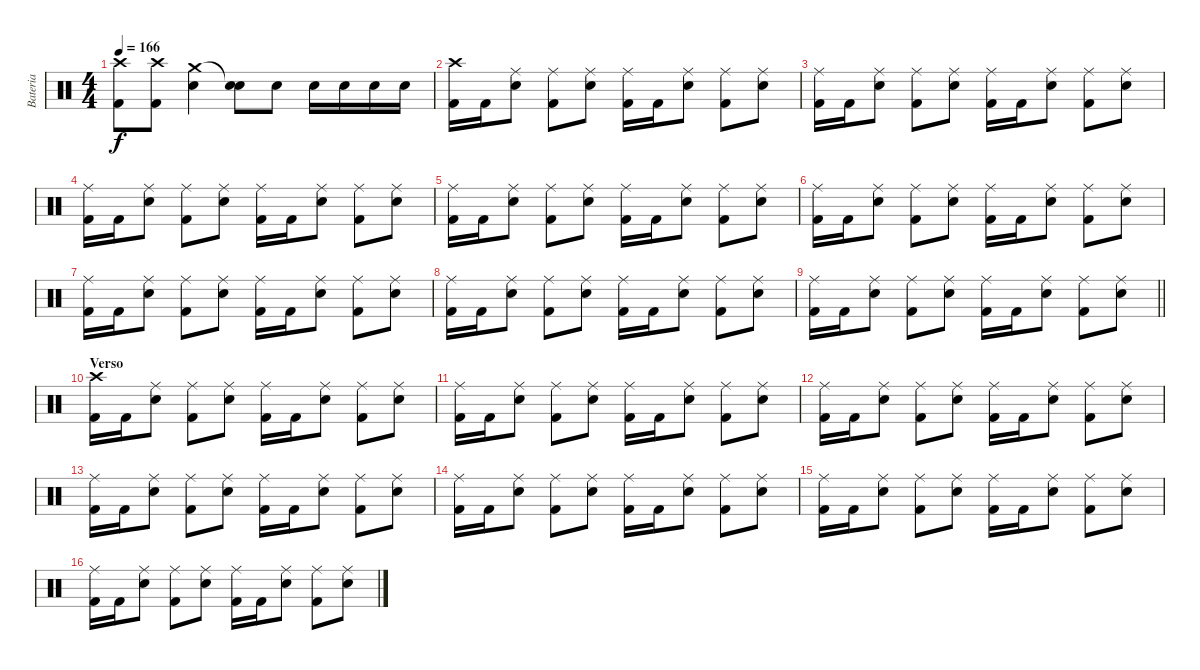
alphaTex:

\track ("Bateria" "Bateria") {instrument percussion}
\staff {score}
\articulation defaults
\ts (4 4)
\tempo 166
\clef neutral
\ks c
("Crash high (hit)" "Kick (hit) 2").8{dy f} ("Crash high (hit)" "Kick (hit) 2").8 ("Crash medium (hit)" "Electric Snare (hit)").4 ("Snare (hit)"{t} "Electric Snare (hit)").8 "Electric Snare (hit)".8 "Electric Snare (hit)".16 "Electric Snare (hit)".16 "Electric Snare (hit)".16 "Electric Snare (hit)".16 |
("Crash high (hit)" "Kick (hit) 2").16 "Kick (hit) 2".16 ("Ride (middle)" "Electric Snare (hit)").8 ("Ride (middle)" "Kick (hit) 2").8 ("Ride (middle)" "Electric Snare (hit)").8 ("Ride (middle)" "Kick (hit) 2").16 "Kick (hit) 2".16 ("Ride (middle)" "Electric Snare (hit)").8 ("Ride (middle)" "Kick (hit) 2").8 ("Ride (middle)" "Electric Snare (hit)").8 |
("Ride (middle)" "Kick (hit) 2").16 "Kick (hit) 2".16 ("Ride (middle)" "Electric Snare (hit)").8 ("Ride (middle)" "Kick (hit) 2").8 ("Ride (middle)" "Electric Snare (hit)").8 ("Ride (middle)" "Kick (hit) 2").16 "Kick (hit) 2".16 ("Ride (middle)" "Electric Snare (hit)").8 ("Ride (middle)" "Kick (hit) 2").8 ("Ride (middle)" "Electric Snare (hit)").8 |
("Ride (middle)" "Kick (hit) 2").16 "Kick (hit) 2".16 ("Ride (middle)" "Electric Snare (hit)").8 ("Ride (middle)" "Kick (hit) 2").8 ("Ride (middle)" "Electric Snare (hit)").8 ("Ride (middle)" "Kick (hit) 2").16 "Kick (hit) 2".16 ("Ride (middle)" "Electric Snare (hit)").8 ("Ride (middle)" "Kick (hit) 2").8 ("Ride (middle)" "Electric Snare (hit)").8 |
("Ride (middle)" "Kick (hit) 2").16 "Kick (hit) 2".16 ("Ride (middle)" "Electric Snare (hit)").8 ("Ride (middle)" "Kick (hit) 2").8 ("Ride (middle)" "Electric Snare (hit)").8 ("Ride (middle)" "Kick (hit) 2").16 "Kick (hit) 2".16 ("Ride (middle)" "Electric Snare (hit)").8 ("Ride (middle)" "Kick (hit) 2").8 ("Ride (middle)" "Electric Snare (hit)").8 |
("Ride (middle)" "Kick (hit) 2").16 "Kick (hit) 2".16 ("Ride (middle)" "Electric Snare (hit)").8 ("Ride (middle)" "Kick (hit) 2").8 ("Ride (middle)" "Electric Snare (hit)").8 ("Ride (middle)" "Kick (hit) 2").16 "Kick (hit) 2".16 ("Ride (middle)" "Electric Snare (hit)").8 ("Ride (middle)" "Kick (hit) 2").8 ("Ride (middle)" "Electric Snare (hit)").8 |
("Ride (middle)" "Kick (hit) 2").16 "Kick (hit) 2".16 ("Ride (middle)" "Electric Snare (hit)").8 ("Ride (middle)" "Kick (hit) 2").8 ("Ride (middle)" "Electric Snare (hit)").8 ("Ride (middle)" "Kick (hit) 2").16 "Kick (hit) 2".16 ("Ride (middle)" "Electric Snare (hit)").8 ("Ride (middle)" "Kick (hit) 2").8 ("Ride (middle)" "Electric Snare (hit)").8 |
("Ride (middle)" "Kick (hit) 2").16 "Kick (hit) 2".16 ("Ride (middle)" "Electric Snare (hit)").8 ("Ride (middle)" "Kick (hit) 2").8 ("Ride (middle)" "Electric Snare (hit)").8 ("Ride (middle)" "Kick (hit) 2").16 "Kick (hit) 2".16 ("Ride (middle)" "Electric Snare (hit)").8 ("Ride (middle)" "Kick (hit) 2").8 ("Ride (middle)" "Electric Snare (hit)").8 |
\barLineRight lightlight
("Ride (middle)" "Kick (hit) 2").16 "Kick (hit) 2".16 ("Ride (middle)" "Electric Snare (hit)").8 ("Ride (middle)" "Kick (hit) 2").8 ("Ride (middle)" "Electric Snare (hit)").8 ("Ride (middle)" "Kick (hit) 2").16 "Kick (hit) 2".16 ("Ride (middle)" "Electric Snare (hit)").8 ("Ride (middle)" "Kick (hit) 2").8 ("Ride (middle)" "Electric Snare (hit)").8 |
\section ("" "Verso")
("Crash high (hit)" "Kick (hit) 2").16 "Kick (hit) 2".16 ("Ride (middle)" "Electric Snare (hit)").8 ("Ride (middle)" "Kick (hit) 2").8 ("Ride (middle)" "Electric Snare (hit)").8 ("Ride (middle)" "Kick (hit) 2").16 "Kick (hit) 2".16 ("Ride (middle)" "Electric Snare (hit)").8 ("Ride (middle)" "Kick (hit) 2").8 ("Ride (middle)" "Electric Snare (hit)").8 |
("Ride (middle)" "Kick (hit) 2").16 "Kick (hit) 2".16 ("Ride (middle)" "Electric Snare (hit)").8 ("Ride (middle)" "Kick (hit) 2").8 ("Ride (middle)" "Electric Snare (hit)").8 ("Ride (middle)" "Kick (hit) 2").16 "Kick (hit) 2".16 ("Ride (middle)" "Electric Snare (hit)").8 ("Ride (middle)" "Kick (hit) 2").8 ("Ride (middle)" "Electric Snare (hit)").8 |
("Ride (middle)" "Kick (hit) 2").16 "Kick (hit) 2".16 ("Ride (middle)" "Electric Snare (hit)").8 ("Ride (middle)" "Kick (hit) 2").8 ("Ride (middle)" "Electric Snare (hit)").8 ("Ride (middle)" "Kick (hit) 2").16 "Kick (hit) 2".16 ("Ride (middle)" "Electric Snare (hit)").8 ("Ride (middle)" "Kick (hit) 2").8 ("Ride (middle)" "Electric Snare (hit)").8 |
("Ride (middle)" "Kick (hit) 2").16 "Kick (hit) 2".16 ("Ride (middle)" "Electric Snare (hit)").8 ("Ride (middle)" "Kick (hit) 2").8 ("Ride (middle)" "Electric Snare (hit)").8 ("Ride (middle)" "Kick (hit) 2").16 "Kick (hit) 2".16 ("Ride (middle)" "Electric Snare (hit)").8 ("Ride (middle)" "Kick (hit) 2").8 ("Ride (middle)" "Electric Snare (hit)").8 |
("Ride (middle)" "Kick (hit) 2").16 "Kick (hit) 2".16 ("Ride (middle)" "Electric Snare (hit)").8 ("Ride (middle)" "Kick (hit) 2").8 ("Ride (middle)" "Electric Snare (hit)").8 ("Ride (middle)" "Kick (hit) 2").16 "Kick (hit) 2".16 ("Ride (middle)" "Electric Snare (hit)").8 ("Ride (middle)" "Kick (hit) 2").8 ("Ride (middle)" "Electric Snare (hit)").8 |
("Ride (middle)" "Kick (hit) 2").16 "Kick (hit) 2".16 ("Ride (middle)" "Electric Snare (hit)").8 ("Ride (middle)" "Kick (hit) 2").8 ("Ride (middle)" "Electric Snare (hit)").8 ("Ride (middle)" "Kick (hit) 2").16 "Kick (hit) 2".16 ("Ride (middle)" "Electric Snare (hit)").8 ("Ride (middle)" "Kick (hit) 2").8 ("Ride (middle)" "Electric Snare (hit)").8 |
("Ride (middle)" "Kick (hit) 2").16 "Kick (hit) 2".16 ("Ride (middle)" "Electric Snare (hit)").8 ("Ride (middle)" "Kick (hit) 2").8 ("Ride (middle)" "Electric Snare (hit)").8 ("Ride (middle)" "Kick (hit) 2").16 "Kick (hit) 2".16 ("Ride (middle)" "Electric Snare (hit)").8 ("Ride (middle)" "Kick (hit) 2").8 ("Ride (middle)" "Electric Snare (hit)").8
